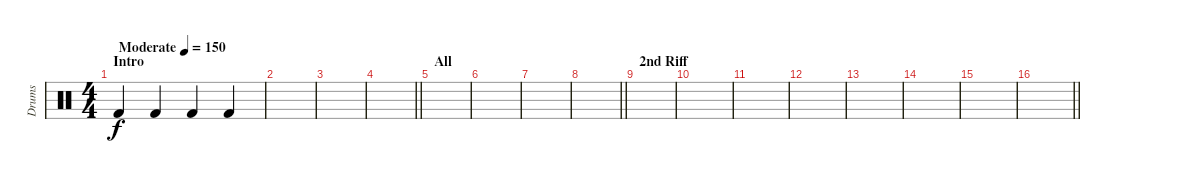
\track ("Drums" "Drums") {instrument percussion}
\staff {score}
\articulation defaults
\ts (4 4)
\section ("" "Intro")
\tempo (150 "Moderate")
\clef neutral
\ks c "Kick (hit) 2".4{dy f} "Kick (hit) 2".4 "Kick (hit) 2".4 "Kick (hit) 2".4
|
|
|
\barLineRight lightlight
|
\section ("" "All")
|
|
|
\barLineRight lightlight
|
\section ("" "2nd Riff")
|
|
|
|
|
|
|
\barLineRight lightlight
